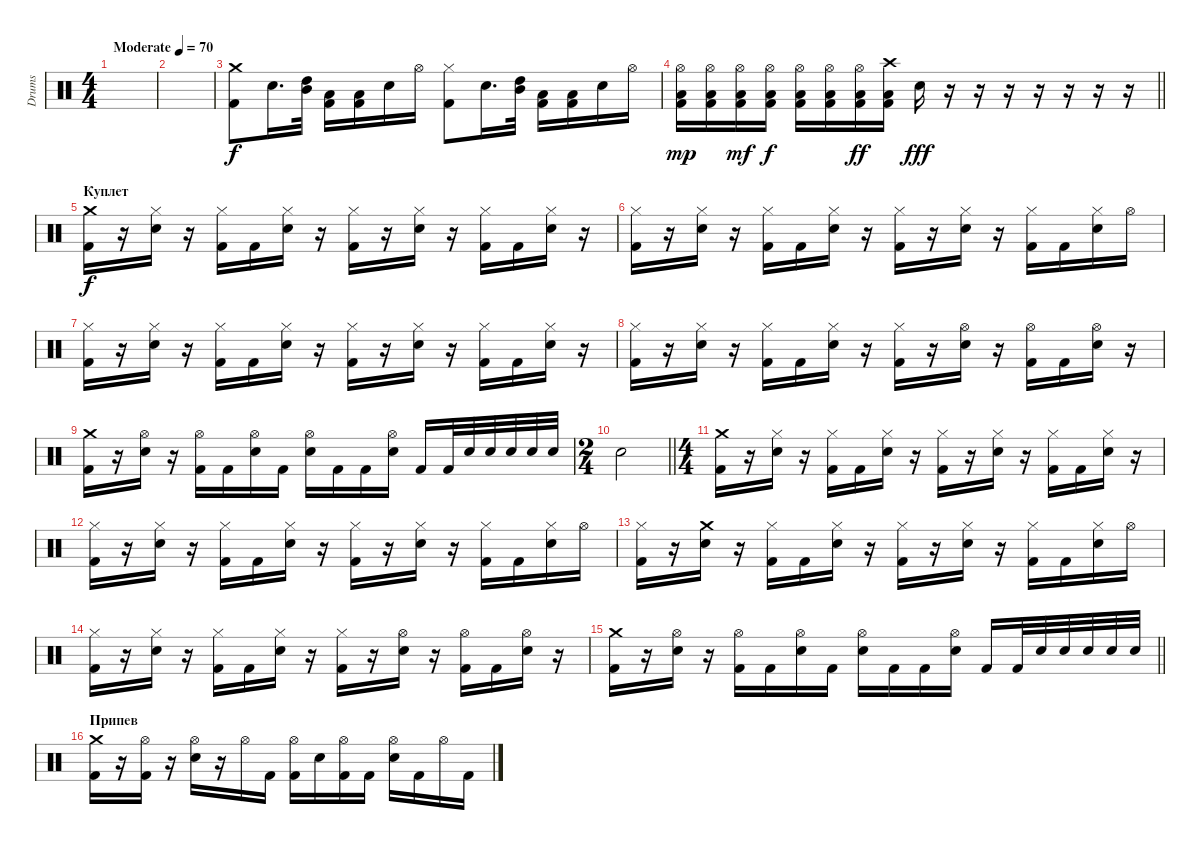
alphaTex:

\track ("Drums" "Drums") {instrument percussion}
\staff {score}
\articulation defaults
\ts (4 4)
\tempo (70 "Moderate")
\clef neutral
\ks c
|
|
("Crash medium (hit)" "Kick (hit) 2").8 "Snare (hit) 2".16{d} ("High Tom (hit)" "Mid Tom (hit)").32 ("Kick (hit) 2" "Low Tom (hit)").16 ("Kick (hit) 2" "Low Tom (hit)").16 "Snare (hit) 2".16 "Hi-Hat (open)".16 ("Hi-Hat (closed)" "Kick (hit) 2").8 "Snare (hit) 2".16{d} ("High Tom (hit)" "Mid Tom (hit)").32 ("Kick (hit) 2" "Low Tom (hit)").16 ("Kick (hit) 2" "Low Tom (hit)").16 "Snare (hit) 2".16 "Hi-Hat (open)".16 |
\barLineRight lightlight
("Hi-Hat (open)" "Low Tom (hit)" "Kick (hit) 2").16{dy mp} ("Hi-Hat (open)" "Low Tom (hit)" "Kick (hit) 2").16 ("Hi-Hat (open)" "Low Tom (hit)" "Kick (hit) 2").16{dy mf} ("Hi-Hat (open)" "Low Tom (hit)" "Kick (hit) 2").16{dy f} ("Hi-Hat (open)" "Low Tom (hit)" "Kick (hit) 2").16 ("Hi-Hat (open)" "Low Tom (hit)" "Kick (hit) 2").16 ("Hi-Hat (open)" "Low Tom (hit)" "Kick (hit) 2").16{dy ff} ("Crash high (hit)" "Low Tom (hit)" "Kick (hit) 2").16 "Electric Snare (hit)".16{dy fff} r.16 r.16 r.16 r.16 r.16 r.16 r.16 |
\section ("" "Куплет")
("Crash medium (hit)" "Kick (hit) 2").16{dy f} r.16 ("Hi-Hat (closed)" "Electric Snare (hit)").16 r.16 ("Hi-Hat (closed)" "Kick (hit) 2").16 "Kick (hit) 2".16 ("Hi-Hat (closed)" "Electric Snare (hit)").16 r.16 ("Hi-Hat (closed)" "Kick (hit) 2").16 r.16 ("Hi-Hat (closed)" "Electric Snare (hit)").16 r.16 ("Hi-Hat (closed)" "Kick (hit) 2").16 "Kick (hit) 2".16 ("Hi-Hat (closed)" "Electric Snare (hit)").16 r.16 |
("Hi-Hat (closed)" "Kick (hit) 2").16 r.16 ("Hi-Hat (closed)" "Electric Snare (hit)").16 r.16 ("Hi-Hat (closed)" "Kick (hit) 2").16 "Kick (hit) 2".16 ("Hi-Hat (closed)" "Electric Snare (hit)").16 r.16 ("Hi-Hat (closed)" "Kick (hit) 2").16 r.16 ("Hi-Hat (closed)" "Electric Snare (hit)").16 r.16 ("Hi-Hat (closed)" "Kick (hit) 2").16 "Kick (hit) 2".16 ("Hi-Hat (closed)" "Electric Snare (hit)").16 "Hi-Hat (open)".16 |
("Hi-Hat (closed)" "Kick (hit) 2").16 r.16 ("Hi-Hat (closed)" "Electric Snare (hit)").16 r.16 ("Hi-Hat (closed)" "Kick (hit) 2").16 "Kick (hit) 2".16 ("Hi-Hat (closed)" "Electric Snare (hit)").16 r.16 ("Hi-Hat (closed)" "Kick (hit) 2").16 r.16 ("Hi-Hat (closed)" "Electric Snare (hit)").16 r.16 ("Hi-Hat (closed)" "Kick (hit) 2").16 "Kick (hit) 2".16 ("Hi-Hat (closed)" "Electric Snare (hit)").16 r.16 |
("Hi-Hat (closed)" "Kick (hit) 2").16 r.16 ("Hi-Hat (closed)" "Electric Snare (hit)").16 r.16 ("Hi-Hat (closed)" "Kick (hit) 2").16 "Kick (hit) 2".16 ("Hi-Hat (closed)" "Electric Snare (hit)").16 r.16 ("Hi-Hat (closed)" "Kick (hit) 2").16 r.16 ("Hi-Hat (open)" "Electric Snare (hit)").16 r.16 ("Hi-Hat (open)" "Kick (hit) 2").16 "Kick (hit) 2".16 ("Hi-Hat (open)" "Electric Snare (hit)").16 r.16 |
("Crash medium (hit)" "Kick (hit) 2").16 r.16 ("Hi-Hat (open)" "Electric Snare (hit)").16 r.16 ("Hi-Hat (open)" "Kick (hit) 2").16 "Kick (hit) 2".16 ("Hi-Hat (open)" "Electric Snare (hit)").16 "Kick (hit) 2".16 ("Hi-Hat (open)" "Electric Snare (hit)").16 "Kick (hit) 2".16 "Kick (hit) 2".16 ("Hi-Hat (open)" "Electric Snare (hit)").16 "Kick (hit) 2".16 "Kick (hit) 2".32 "Electric Snare (hit)".32 "Electric Snare (hit)".32 "Electric Snare (hit)".32 "Electric Snare (hit)".32 "Electric Snare (hit)".32 |
\ts (2 4)
\barLineRight lightlight "Electric Snare (hit)".2
|
\ts (4 4)
("Crash medium (hit)" "Kick (hit) 2").16 r.16 ("Hi-Hat (closed)" "Electric Snare (hit)").16 r.16 ("Hi-Hat (closed)" "Kick (hit) 2").16 "Kick (hit) 2".16 ("Hi-Hat (closed)" "Electric Snare (hit)").16 r.16 ("Hi-Hat (closed)" "Kick (hit) 2").16 r.16 ("Hi-Hat (closed)" "Electric Snare (hit)").16 r.16 ("Hi-Hat (closed)" "Kick (hit) 2").16 "Kick (hit) 2".16 ("Hi-Hat (closed)" "Electric Snare (hit)").16 r.16 |
("Hi-Hat (closed)" "Kick (hit) 2").16 r.16 ("Hi-Hat (closed)" "Electric Snare (hit)").16 r.16 ("Hi-Hat (closed)" "Kick (hit) 2").16 "Kick (hit) 2".16 ("Hi-Hat (closed)" "Electric Snare (hit)").16 r.16 ("Hi-Hat (closed)" "Kick (hit) 2").16 r.16 ("Hi-Hat (closed)" "Electric Snare (hit)").16 r.16 ("Hi-Hat (closed)" "Kick (hit) 2").16 "Kick (hit) 2".16 ("Hi-Hat (closed)" "Electric Snare (hit)").16 "Hi-Hat (open)".16 |
("Hi-Hat (closed)" "Kick (hit) 2").16 r.16 ("Crash medium (hit)" "Electric Snare (hit)").16 r.16 ("Hi-Hat (closed)" "Kick (hit) 2").16 "Kick (hit) 2".16 ("Hi-Hat (closed)" "Electric Snare (hit)").16 r.16 ("Hi-Hat (closed)" "Kick (hit) 2").16 r.16 ("Hi-Hat (closed)" "Electric Snare (hit)").16 r.16 ("Hi-Hat (closed)" "Kick (hit) 2").16 "Kick (hit) 2".16 ("Hi-Hat (closed)" "Electric Snare (hit)").16 "Hi-Hat (open)".16 |
("Hi-Hat (closed)" "Kick (hit) 2").16 r.16 ("Hi-Hat (closed)" "Electric Snare (hit)").16 r.16 ("Hi-Hat (closed)" "Kick (hit) 2").16 "Kick (hit) 2".16 ("Hi-Hat (closed)" "Electric Snare (hit)").16 r.16 ("Hi-Hat (closed)" "Kick (hit) 2").16 r.16 ("Hi-Hat (open)" "Electric Snare (hit)").16 r.16 ("Hi-Hat (open)" "Kick (hit) 2").16 "Kick (hit) 2".16 ("Hi-Hat (open)" "Electric Snare (hit)").16 r.16 |
\barLineRight lightlight
("Crash medium (hit)" "Kick (hit) 2").16 r.16 ("Hi-Hat (open)" "Electric Snare (hit)").16 r.16 ("Hi-Hat (open)" "Kick (hit) 2").16 "Kick (hit) 2".16 ("Hi-Hat (open)" "Electric Snare (hit)").16 "Kick (hit) 2".16 ("Hi-Hat (open)" "Electric Snare (hit)").16 "Kick (hit) 2".16 "Kick (hit) 2".16 ("Hi-Hat (open)" "Electric Snare (hit)").16 "Kick (hit) 2".16 "Kick (hit) 2".32 "Electric Snare (hit)".32 "Electric Snare (hit)".32 "Electric Snare (hit)".32 "Electric Snare (hit)".32 "Electric Snare (hit)".32 |
\section ("" "Припев")
("Crash medium (hit)" "Kick (hit) 2").16 r.16 ("Hi-Hat (open)" "Kick (hit) 2").16 r.16 ("Hi-Hat (open)" "Electric Snare (hit)").16 r.16 "Hi-Hat (open)".16 "Kick (hit) 2".16 ("Hi-Hat (open)" "Kick (hit) 2").16 "Electric Snare (hit)".16 ("Hi-Hat (open)" "Kick (hit) 2").16 "Kick (hit) 2".16 ("Hi-Hat (open)" "Electric Snare (hit)").16 "Kick (hit) 2".16 "Hi-Hat (open)".16 "Kick (hit) 2".16
